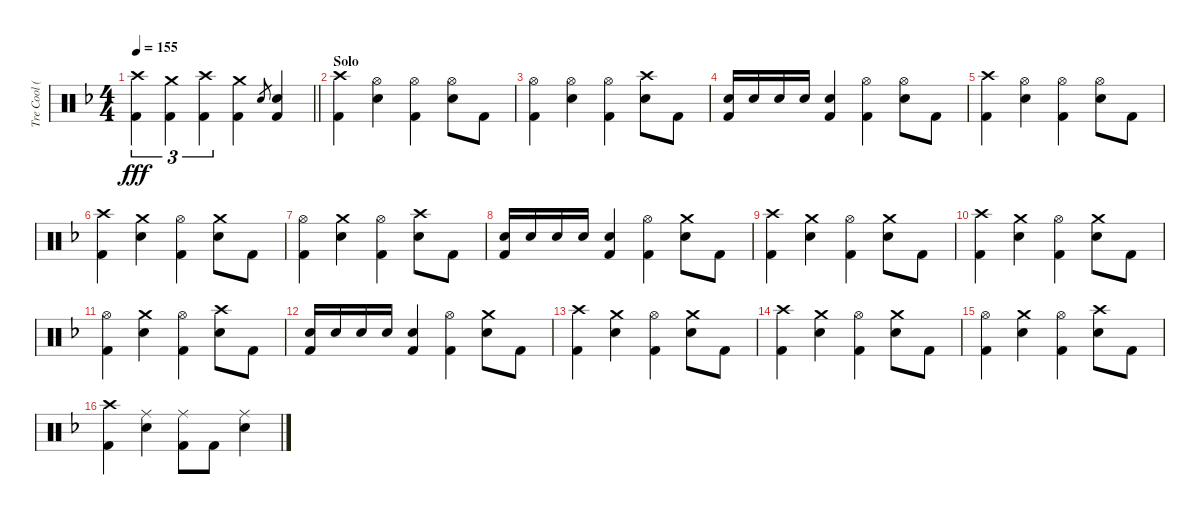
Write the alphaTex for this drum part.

\track ("Tre Cool (Drums)" "Tre Cool (") {instrument percussion}
\staff {score}
\articulation defaults
\ts (4 4)
\tempo 155
\clef neutral
\barLineRight lightlight
\ks f
("Crash high (hit)" "Kick (hit) 2").4{tu (3 2) dy fff} ("Crash medium (hit)" "Kick (hit) 2").4{tu (3 2)} ("Crash high (hit)" "Kick (hit) 2").4{tu (3 2)} ("Crash medium (hit)" "Kick (hit) 2").4 "Electric Snare (hit)".8{gr} ("Electric Snare (hit)" "Kick (hit) 2").4 |
\section ("" "Solo")
("Crash high (hit)" "Kick (hit) 2").4 ("Hi-Hat (open)" "Electric Snare (hit)").4 ("Hi-Hat (open)" "Kick (hit) 2").4 ("Hi-Hat (open)" "Electric Snare (hit)").8 "Kick (hit) 2".8 |
("Hi-Hat (open)" "Kick (hit) 2").4 ("Hi-Hat (open)" "Electric Snare (hit)").4 ("Hi-Hat (open)" "Kick (hit) 2").4 ("Crash high (hit)" "Electric Snare (hit)").8 "Kick (hit) 2".8 |
("Electric Snare (hit)" "Kick (hit) 2").16 "Electric Snare (hit)".16 "Electric Snare (hit)".16 "Electric Snare (hit)".16 ("Electric Snare (hit)" "Kick (hit) 2").4 ("Hi-Hat (open)" "Kick (hit) 2").4 ("Hi-Hat (open)" "Electric Snare (hit)").8 "Kick (hit) 2".8 |
("Crash high (hit)" "Kick (hit) 2").4 ("Hi-Hat (open)" "Electric Snare (hit)").4 ("Hi-Hat (open)" "Kick (hit) 2").4 ("Hi-Hat (open)" "Electric Snare (hit)").8 "Kick (hit) 2".8 |
("Crash high (hit)" "Kick (hit) 2").4 ("Crash medium (hit)" "Electric Snare (hit)").4 ("Hi-Hat (open)" "Kick (hit) 2").4 ("Crash medium (hit)" "Electric Snare (hit)").8 "Kick (hit) 2".8 |
("Hi-Hat (open)" "Kick (hit) 2").4 ("Crash medium (hit)" "Electric Snare (hit)").4 ("Hi-Hat (open)" "Kick (hit) 2").4 ("Crash high (hit)" "Electric Snare (hit)").8 "Kick (hit) 2".8 |
("Electric Snare (hit)" "Kick (hit) 2").16 "Electric Snare (hit)".16 "Electric Snare (hit)".16 "Electric Snare (hit)".16 ("Electric Snare (hit)" "Kick (hit) 2").4 ("Hi-Hat (open)" "Kick (hit) 2").4 ("Crash medium (hit)" "Electric Snare (hit)").8 "Kick (hit) 2".8 |
("Crash high (hit)" "Kick (hit) 2").4 ("Crash medium (hit)" "Electric Snare (hit)").4 ("Hi-Hat (open)" "Kick (hit) 2").4 ("Crash medium (hit)" "Electric Snare (hit)").8 "Kick (hit) 2".8 |
("Crash high (hit)" "Kick (hit) 2").4 ("Crash medium (hit)" "Electric Snare (hit)").4 ("Hi-Hat (open)" "Kick (hit) 2").4 ("Crash medium (hit)" "Electric Snare (hit)").8 "Kick (hit) 2".8 |
("Hi-Hat (open)" "Kick (hit) 2").4 ("Crash medium (hit)" "Electric Snare (hit)").4 ("Hi-Hat (open)" "Kick (hit) 2").4 ("Crash high (hit)" "Electric Snare (hit)").8 "Kick (hit) 2".8 |
("Electric Snare (hit)" "Kick (hit) 2").16 "Electric Snare (hit)".16 "Electric Snare (hit)".16 "Electric Snare (hit)".16 ("Electric Snare (hit)" "Kick (hit) 2").4 ("Hi-Hat (open)" "Kick (hit) 2").4 ("Crash medium (hit)" "Electric Snare (hit)").8 "Kick (hit) 2".8 |
("Crash high (hit)" "Kick (hit) 2").4 ("Crash medium (hit)" "Electric Snare (hit)").4 ("Hi-Hat (open)" "Kick (hit) 2").4 ("Crash medium (hit)" "Electric Snare (hit)").8 "Kick (hit) 2".8 |
("Crash high (hit)" "Kick (hit) 2").4 ("Crash medium (hit)" "Electric Snare (hit)").4 ("Hi-Hat (open)" "Kick (hit) 2").4 ("Crash medium (hit)" "Electric Snare (hit)").8 "Kick (hit) 2".8 |
("Hi-Hat (open)" "Kick (hit) 2").4 ("Crash medium (hit)" "Electric Snare (hit)").4 ("Hi-Hat (open)" "Kick (hit) 2").4 ("Crash high (hit)" "Electric Snare (hit)").8 "Kick (hit) 2".8 |
("Crash high (hit)" "Kick (hit) 2").4 ("Ride (middle)" "Electric Snare (hit)").4 ("Ride (middle)" "Kick (hit) 2").8 "Kick (hit) 2".8 ("Ride (middle)" "Electric Snare (hit)").4
